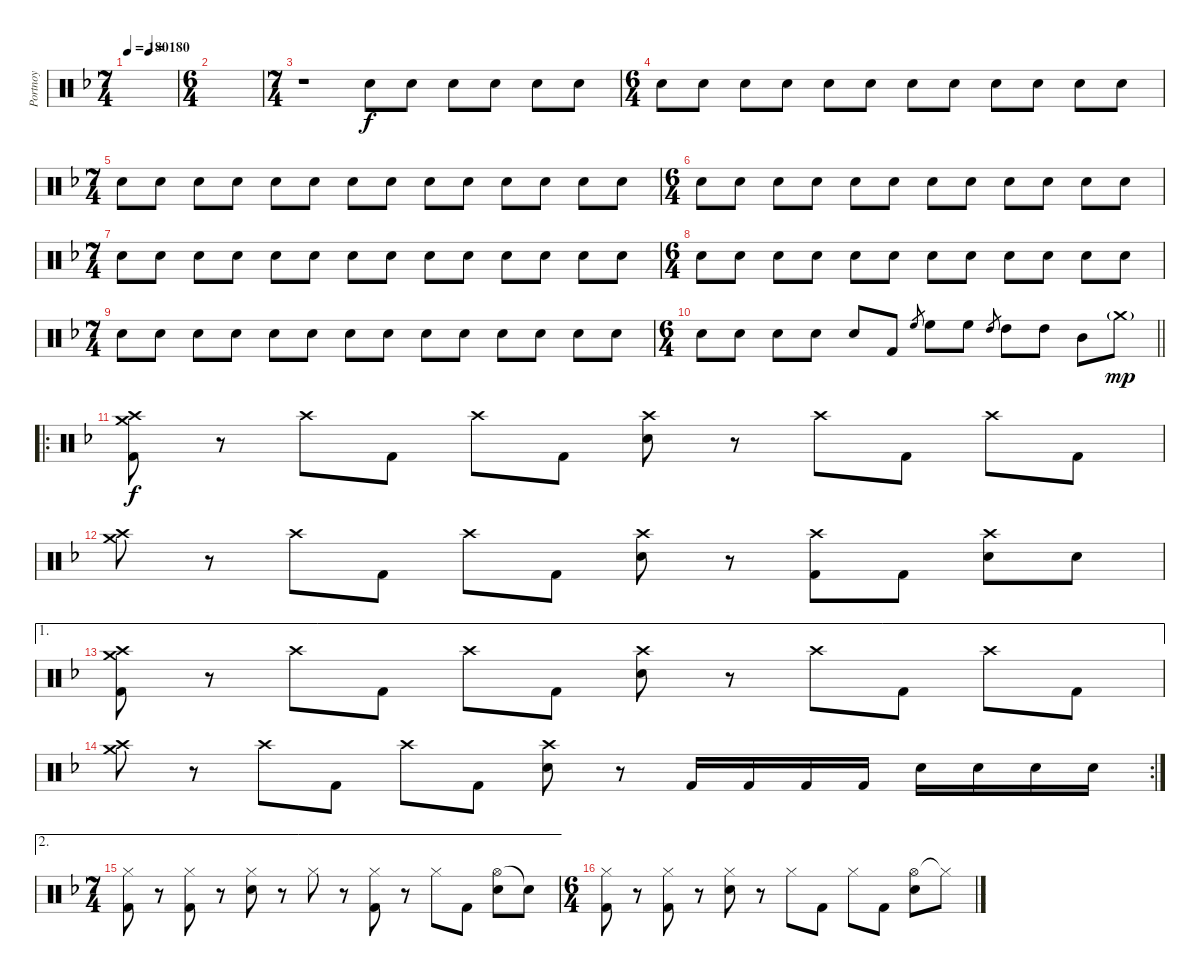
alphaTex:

\track ("Portnoy" "Portnoy") {instrument percussion}
\staff {score}
\articulation defaults
\ts (7 4)
\tempo 180
\tempo (180 0.42857142857142855)
\clef neutral
\ks f
|
\ts (6 4)
|
\ts (7 4)
r.1{volume 5} "Electric Snare (hit)".8{volume 10} "Electric Snare (hit)".8 "Electric Snare (hit)".8 "Electric Snare (hit)".8 "Electric Snare (hit)".8 "Electric Snare (hit)".8 |
\ts (6 4)
"Electric Snare (hit)".8 "Electric Snare (hit)".8 "Electric Snare (hit)".8 "Electric Snare (hit)".8 "Electric Snare (hit)".8 "Electric Snare (hit)".8 "Electric Snare (hit)".8 "Electric Snare (hit)".8 "Electric Snare (hit)".8 "Electric Snare (hit)".8 "Electric Snare (hit)".8 "Electric Snare (hit)".8 |
\ts (7 4)
"Electric Snare (hit)".8 "Electric Snare (hit)".8 "Electric Snare (hit)".8 "Electric Snare (hit)".8 "Electric Snare (hit)".8 "Electric Snare (hit)".8 "Electric Snare (hit)".8 "Electric Snare (hit)".8 "Electric Snare (hit)".8 "Electric Snare (hit)".8 "Electric Snare (hit)".8 "Electric Snare (hit)".8 "Electric Snare (hit)".8 "Electric Snare (hit)".8 |
\ts (6 4)
"Electric Snare (hit)".8{volume 13} "Electric Snare (hit)".8 "Electric Snare (hit)".8 "Electric Snare (hit)".8 "Electric Snare (hit)".8 "Electric Snare (hit)".8 "Electric Snare (hit)".8 "Electric Snare (hit)".8 "Electric Snare (hit)".8 "Electric Snare (hit)".8 "Electric Snare (hit)".8 "Electric Snare (hit)".8 |
\ts (7 4)
"Electric Snare (hit)".8 "Electric Snare (hit)".8 "Electric Snare (hit)".8 "Electric Snare (hit)".8 "Electric Snare (hit)".8 "Electric Snare (hit)".8 "Electric Snare (hit)".8 "Electric Snare (hit)".8 "Electric Snare (hit)".8 "Electric Snare (hit)".8 "Electric Snare (hit)".8 "Electric Snare (hit)".8 "Electric Snare (hit)".8 "Electric Snare (hit)".8 |
\ts (6 4)
"Electric Snare (hit)".8 "Electric Snare (hit)".8 "Electric Snare (hit)".8 "Electric Snare (hit)".8 "Electric Snare (hit)".8 "Electric Snare (hit)".8 "Electric Snare (hit)".8{volume 16} "Electric Snare (hit)".8 "Electric Snare (hit)".8 "Electric Snare (hit)".8 "Electric Snare (hit)".8 "Electric Snare (hit)".8 |
\ts (7 4)
"Electric Snare (hit)".8 "Electric Snare (hit)".8 "Electric Snare (hit)".8 "Electric Snare (hit)".8 "Electric Snare (hit)".8 "Electric Snare (hit)".8 "Electric Snare (hit)".8 "Electric Snare (hit)".8 "Electric Snare (hit)".8 "Electric Snare (hit)".8 "Electric Snare (hit)".8 "Electric Snare (hit)".8 "Electric Snare (hit)".8 "Electric Snare (hit)".8 |
\ts (6 4)
\barLineRight lightlight "Electric Snare (hit)".8 "Electric Snare (hit)".8 "Electric Snare (hit)".8 "Electric Snare (hit)".8 "Electric Snare (hit)".8 "Kick (hit) 2".8 "High Floor Tom (hit)".8{gr} "High Floor Tom (hit)".8 "High Floor Tom (hit)".8 "High Tom (hit)".8{gr} "High Tom (hit)".8 "High Tom (hit)".8 "Mid Tom (hit)".8 "Crash medium (hit)"{g}.8{dy mp}
|
\ro
("Crash high (hit)" "Crash medium (hit)" "Kick (hit) 2").8{dy f} r.8 "Crash high (hit)".8 "Kick (hit) 2".8 "Crash high (hit)".8 "Kick (hit) 2".8 ("Crash high (hit)" "Electric Snare (hit)").8 r.8 "Crash high (hit)".8 "Kick (hit) 2".8 "Crash high (hit)".8 "Kick (hit) 2".8 |
("Crash high (hit)" "Crash medium (hit)").8 r.8 "Crash high (hit)".8 "Kick (hit) 2".8 "Crash high (hit)".8 "Kick (hit) 2".8 ("Crash high (hit)" "Electric Snare (hit)").8 r.8 ("Crash high (hit)" "Kick (hit) 2").8 "Kick (hit) 2".8 ("Crash high (hit)" "Electric Snare (hit)").8 "Electric Snare (hit)".8 |
\ae 1
("Crash high (hit)" "Crash medium (hit)" "Kick (hit) 2").8 r.8 "Crash high (hit)".8 "Kick (hit) 2".8 "Crash high (hit)".8 "Kick (hit) 2".8 ("Crash high (hit)" "Electric Snare (hit)").8 r.8 "Crash high (hit)".8 "Kick (hit) 2".8 "Crash high (hit)".8 "Kick (hit) 2".8 |
\rc 2
("Crash high (hit)" "Crash medium (hit)").8 r.8 "Crash high (hit)".8 "Kick (hit) 2".8 "Crash high (hit)".8 "Kick (hit) 2".8 ("Crash high (hit)" "Electric Snare (hit)").8 r.8 "Kick (hit) 2".16 "Kick (hit) 2".16 "Kick (hit) 2".16 "Kick (hit) 2".16 "Electric Snare (hit)".16 "Electric Snare (hit)".16 "Electric Snare (hit)".16 "Electric Snare (hit)".16 |
\ae 2
\ts (7 4)
("Hi-Hat (closed)" "Kick (hit) 2").8 r.8 ("Hi-Hat (closed)" "Kick (hit) 2").8 r.8 ("Hi-Hat (closed)" "Electric Snare (hit)").8 r.8 "Hi-Hat (closed)".8 r.8 ("Hi-Hat (closed)" "Kick (hit) 2").8 r.8 "Hi-Hat (closed)".8 "Kick (hit) 2".8 ("Hi-Hat (open)" "Electric Snare (hit)").8 "Snare (hit)"{t}.8 |
\ts (6 4)
("Hi-Hat (closed)" "Kick (hit) 2").8 r.8 ("Hi-Hat (closed)" "Kick (hit) 2").8 r.8 ("Hi-Hat (closed)" "Electric Snare (hit)").8 r.8 "Hi-Hat (closed)".8 "Kick (hit) 2".8 "Hi-Hat (closed)".8 "Kick (hit) 2".8 ("Hi-Hat (open)" "Electric Snare (hit)").8 "Hi-Hat (closed)"{t}.8
